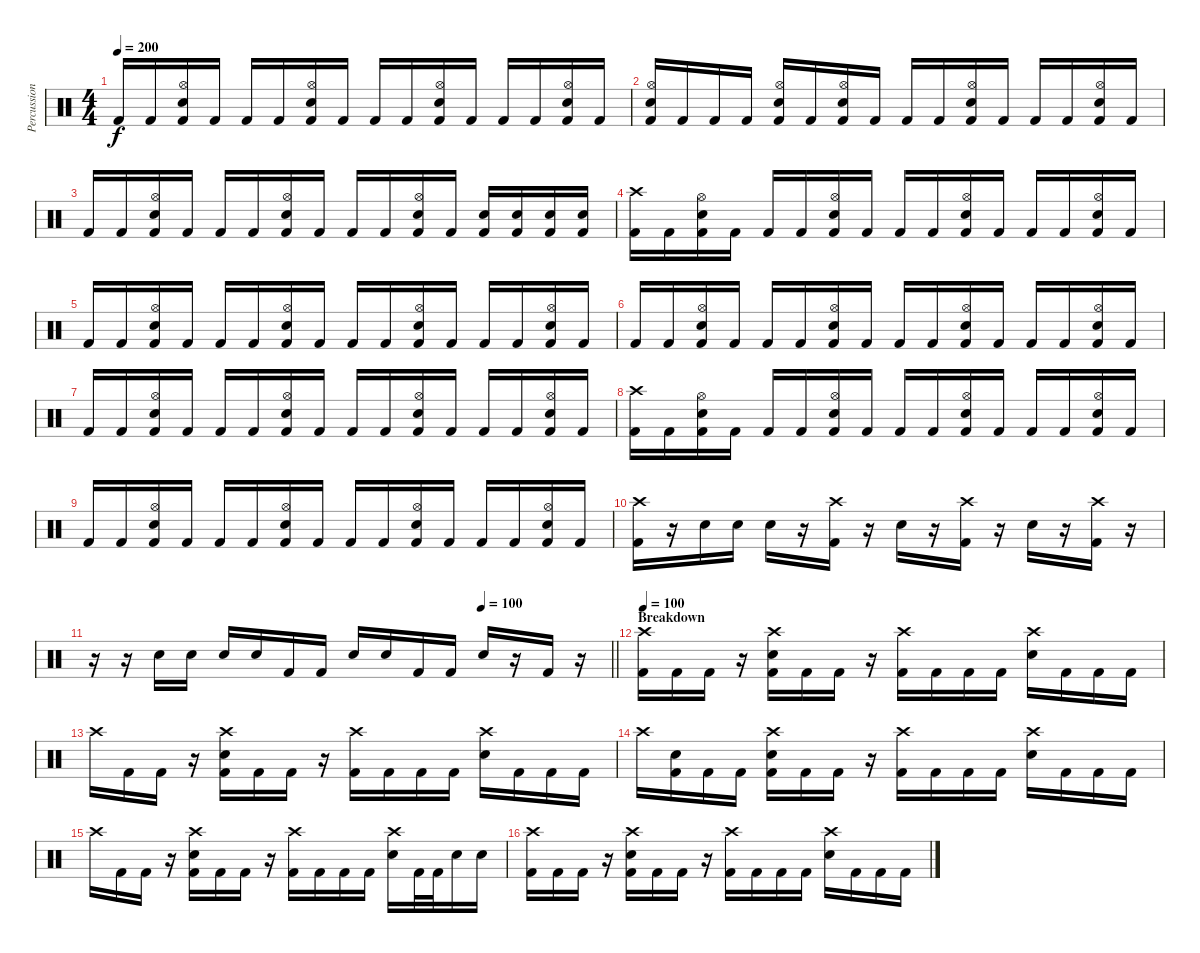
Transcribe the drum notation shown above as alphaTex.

\track ("Percussion" "Percussion") {instrument percussion}
\staff {score}
\articulation defaults
\ts (4 4)
\tempo 200
\clef neutral
\ks c "Kick (hit) 2".16{dy f} "Kick (hit) 2".16
("Hi-Hat (open)" "Electric Snare (hit)" "Kick (hit) 2").16 "Kick (hit) 2".16 "Kick (hit) 2".16 "Kick (hit) 2".16 ("Hi-Hat (open)" "Electric Snare (hit)" "Kick (hit) 2").16 "Kick (hit) 2".16 "Kick (hit) 2".16 "Kick (hit) 2".16 ("Hi-Hat (open)" "Electric Snare (hit)" "Kick (hit) 2").16 "Kick (hit) 2".16 "Kick (hit) 2".16 "Kick (hit) 2".16 ("Hi-Hat (open)" "Electric Snare (hit)" "Kick (hit) 2").16 "Kick (hit) 2".16 |
("Hi-Hat (open)" "Electric Snare (hit)" "Kick (hit) 2").16 "Kick (hit) 2".16 "Kick (hit) 2".16 "Kick (hit) 2".16 ("Hi-Hat (open)" "Electric Snare (hit)" "Kick (hit) 2").16 "Kick (hit) 2".16 ("Hi-Hat (open)" "Electric Snare (hit)" "Kick (hit) 2").16 "Kick (hit) 2".16 "Kick (hit) 2".16 "Kick (hit) 2".16 ("Hi-Hat (open)" "Electric Snare (hit)" "Kick (hit) 2").16 "Kick (hit) 2".16 "Kick (hit) 2".16 "Kick (hit) 2".16 ("Hi-Hat (open)" "Electric Snare (hit)" "Kick (hit) 2").16 "Kick (hit) 2".16 |
"Kick (hit) 2".16 "Kick (hit) 2".16 ("Hi-Hat (open)" "Electric Snare (hit)" "Kick (hit) 2").16 "Kick (hit) 2".16 "Kick (hit) 2".16 "Kick (hit) 2".16 ("Hi-Hat (open)" "Electric Snare (hit)" "Kick (hit) 2").16 "Kick (hit) 2".16 "Kick (hit) 2".16 "Kick (hit) 2".16 ("Hi-Hat (open)" "Electric Snare (hit)" "Kick (hit) 2").16 "Kick (hit) 2".16 ("Electric Snare (hit)" "Kick (hit) 2").16 ("Electric Snare (hit)" "Kick (hit) 2").16 ("Electric Snare (hit)" "Kick (hit) 2").16 ("Electric Snare (hit)" "Kick (hit) 2").16 |
("Crash high (hit)" "Kick (hit) 2").16 "Kick (hit) 2".16 ("Hi-Hat (open)" "Electric Snare (hit)" "Kick (hit) 2").16 "Kick (hit) 2".16 "Kick (hit) 2".16 "Kick (hit) 2".16 ("Hi-Hat (open)" "Electric Snare (hit)" "Kick (hit) 2").16 "Kick (hit) 2".16 "Kick (hit) 2".16 "Kick (hit) 2".16 ("Hi-Hat (open)" "Electric Snare (hit)" "Kick (hit) 2").16 "Kick (hit) 2".16 "Kick (hit) 2".16 "Kick (hit) 2".16 ("Hi-Hat (open)" "Electric Snare (hit)" "Kick (hit) 2").16 "Kick (hit) 2".16 |
"Kick (hit) 2".16 "Kick (hit) 2".16 ("Hi-Hat (open)" "Electric Snare (hit)" "Kick (hit) 2").16 "Kick (hit) 2".16 "Kick (hit) 2".16 "Kick (hit) 2".16 ("Hi-Hat (open)" "Electric Snare (hit)" "Kick (hit) 2").16 "Kick (hit) 2".16 "Kick (hit) 2".16 "Kick (hit) 2".16 ("Hi-Hat (open)" "Electric Snare (hit)" "Kick (hit) 2").16 "Kick (hit) 2".16 "Kick (hit) 2".16 "Kick (hit) 2".16 ("Hi-Hat (open)" "Electric Snare (hit)" "Kick (hit) 2").16 "Kick (hit) 2".16 |
"Kick (hit) 2".16 "Kick (hit) 2".16 ("Hi-Hat (open)" "Electric Snare (hit)" "Kick (hit) 2").16 "Kick (hit) 2".16 "Kick (hit) 2".16 "Kick (hit) 2".16 ("Hi-Hat (open)" "Electric Snare (hit)" "Kick (hit) 2").16 "Kick (hit) 2".16 "Kick (hit) 2".16 "Kick (hit) 2".16 ("Hi-Hat (open)" "Electric Snare (hit)" "Kick (hit) 2").16 "Kick (hit) 2".16 "Kick (hit) 2".16 "Kick (hit) 2".16 ("Hi-Hat (open)" "Electric Snare (hit)" "Kick (hit) 2").16 "Kick (hit) 2".16 |
"Kick (hit) 2".16 "Kick (hit) 2".16 ("Hi-Hat (open)" "Electric Snare (hit)" "Kick (hit) 2").16 "Kick (hit) 2".16 "Kick (hit) 2".16 "Kick (hit) 2".16 ("Hi-Hat (open)" "Electric Snare (hit)" "Kick (hit) 2").16 "Kick (hit) 2".16 "Kick (hit) 2".16 "Kick (hit) 2".16 ("Hi-Hat (open)" "Electric Snare (hit)" "Kick (hit) 2").16 "Kick (hit) 2".16 "Kick (hit) 2".16 "Kick (hit) 2".16 ("Hi-Hat (open)" "Electric Snare (hit)" "Kick (hit) 2").16 "Kick (hit) 2".16 |
("Crash high (hit)" "Kick (hit) 2").16 "Kick (hit) 2".16 ("Hi-Hat (open)" "Electric Snare (hit)" "Kick (hit) 2").16 "Kick (hit) 2".16 "Kick (hit) 2".16 "Kick (hit) 2".16 ("Hi-Hat (open)" "Electric Snare (hit)" "Kick (hit) 2").16 "Kick (hit) 2".16 "Kick (hit) 2".16 "Kick (hit) 2".16 ("Hi-Hat (open)" "Electric Snare (hit)" "Kick (hit) 2").16 "Kick (hit) 2".16 "Kick (hit) 2".16 "Kick (hit) 2".16 ("Hi-Hat (open)" "Electric Snare (hit)" "Kick (hit) 2").16 "Kick (hit) 2".16 |
"Kick (hit) 2".16 "Kick (hit) 2".16 ("Hi-Hat (open)" "Electric Snare (hit)" "Kick (hit) 2").16 "Kick (hit) 2".16 "Kick (hit) 2".16 "Kick (hit) 2".16 ("Hi-Hat (open)" "Electric Snare (hit)" "Kick (hit) 2").16 "Kick (hit) 2".16 "Kick (hit) 2".16 "Kick (hit) 2".16 ("Hi-Hat (open)" "Electric Snare (hit)" "Kick (hit) 2").16 "Kick (hit) 2".16 "Kick (hit) 2".16 "Kick (hit) 2".16 ("Hi-Hat (open)" "Electric Snare (hit)" "Kick (hit) 2").16 "Kick (hit) 2".16 |
("Crash high (hit)" "Kick (hit) 2").16 r.16 "Electric Snare (hit)".16 "Electric Snare (hit)".16 "Electric Snare (hit)".16 r.16 ("Crash high (hit)" "Kick (hit) 2").16 r.16 "Electric Snare (hit)".16 r.16 ("Crash high (hit)" "Kick (hit) 2").16 r.16 "Electric Snare (hit)".16 r.16 ("Crash high (hit)" "Kick (hit) 2").16 r.16 |
\tempo (100 0.75)
\barLineRight lightlight
r.16 r.16 "Electric Snare (hit)".16 "Electric Snare (hit)".16 "Electric Snare (hit)".16 "Electric Snare (hit)".16 "Kick (hit) 2".16 "Kick (hit) 2".16 "Electric Snare (hit)".16 "Electric Snare (hit)".16 "Kick (hit) 2".16 "Kick (hit) 2".16 "Electric Snare (hit)".16 r.16 "Kick (hit) 2".16 r.16 |
\section ("" "Breakdown")
\tempo 100
("Crash high (hit)" "Kick (hit) 2").16 "Kick (hit) 2".16 "Kick (hit) 2".16 r.16 ("Crash high (hit)" "Electric Snare (hit)" "Kick (hit) 2").16 "Kick (hit) 2".16 "Kick (hit) 2".16 r.16 ("Crash high (hit)" "Kick (hit) 2").16 "Kick (hit) 2".16 "Kick (hit) 2".16 "Kick (hit) 2".16 ("Crash high (hit)" "Electric Snare (hit)").16 "Kick (hit) 2".16 "Kick (hit) 2".16 "Kick (hit) 2".16 |
"Crash high (hit)".16 "Kick (hit) 2".16 "Kick (hit) 2".16 r.16 ("Crash high (hit)" "Electric Snare (hit)" "Kick (hit) 2").16 "Kick (hit) 2".16 "Kick (hit) 2".16 r.16 ("Crash high (hit)" "Kick (hit) 2").16 "Kick (hit) 2".16 "Kick (hit) 2".16 "Kick (hit) 2".16 ("Crash high (hit)" "Electric Snare (hit)").16 "Kick (hit) 2".16 "Kick (hit) 2".16 "Kick (hit) 2".16 |
"Crash high (hit)".16 ("Electric Snare (hit)" "Kick (hit) 2").16 "Kick (hit) 2".16 "Kick (hit) 2".16 ("Crash high (hit)" "Electric Snare (hit)" "Kick (hit) 2").16 "Kick (hit) 2".16 "Kick (hit) 2".16 r.16 ("Crash high (hit)" "Kick (hit) 2").16 "Kick (hit) 2".16 "Kick (hit) 2".16 "Kick (hit) 2".16 ("Crash high (hit)" "Electric Snare (hit)").16 "Kick (hit) 2".16 "Kick (hit) 2".16 "Kick (hit) 2".16 |
"Crash high (hit)".16 "Kick (hit) 2".16 "Kick (hit) 2".16 r.16 ("Crash high (hit)" "Electric Snare (hit)" "Kick (hit) 2").16 "Kick (hit) 2".16 "Kick (hit) 2".16 r.16 ("Crash high (hit)" "Kick (hit) 2").16 "Kick (hit) 2".16 "Kick (hit) 2".16 "Kick (hit) 2".16 ("Crash high (hit)" "Electric Snare (hit)").16 "Kick (hit) 2".32 "Kick (hit) 2".32 "Electric Snare (hit)".16 "Electric Snare (hit)".16 |
("Crash high (hit)" "Kick (hit) 2").16 "Kick (hit) 2".16 "Kick (hit) 2".16 r.16 ("Crash high (hit)" "Electric Snare (hit)" "Kick (hit) 2").16 "Kick (hit) 2".16 "Kick (hit) 2".16 r.16 ("Crash high (hit)" "Kick (hit) 2").16 "Kick (hit) 2".16 "Kick (hit) 2".16 "Kick (hit) 2".16 ("Crash high (hit)" "Electric Snare (hit)").16 "Kick (hit) 2".16 "Kick (hit) 2".16 "Kick (hit) 2".16
